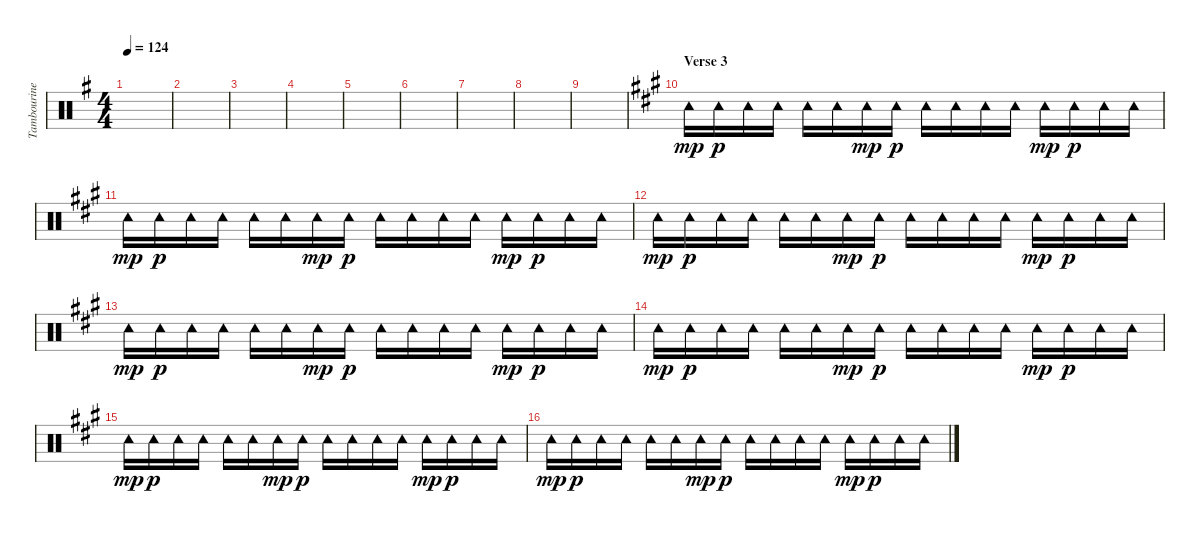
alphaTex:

\track ("Tambourine" "Tambourine") {instrument percussion}
\staff {score}
\articulation defaults
\ts (4 4)
\tempo 124
\clef neutral
\ks eminor
|
|
|
|
|
|
|
|
|
\section ("" "Verse 3")
\ks a "Tambourine (hit)".16{dy mp} "Tambourine (hit)".16{dy p} "Tambourine (hit)".16 "Tambourine (hit)".16 "Tambourine (hit)".16 "Tambourine (hit)".16 "Tambourine (hit)".16{dy mp} "Tambourine (hit)".16{dy p} "Tambourine (hit)".16 "Tambourine (hit)".16 "Tambourine (hit)".16 "Tambourine (hit)".16 "Tambourine (hit)".16{dy mp} "Tambourine (hit)".16{dy p} "Tambourine (hit)".16 "Tambourine (hit)".16
|
"Tambourine (hit)".16{dy mp} "Tambourine (hit)".16{dy p} "Tambourine (hit)".16 "Tambourine (hit)".16 "Tambourine (hit)".16 "Tambourine (hit)".16 "Tambourine (hit)".16{dy mp} "Tambourine (hit)".16{dy p} "Tambourine (hit)".16 "Tambourine (hit)".16 "Tambourine (hit)".16 "Tambourine (hit)".16 "Tambourine (hit)".16{dy mp} "Tambourine (hit)".16{dy p} "Tambourine (hit)".16 "Tambourine (hit)".16 |
"Tambourine (hit)".16{dy mp} "Tambourine (hit)".16{dy p} "Tambourine (hit)".16 "Tambourine (hit)".16 "Tambourine (hit)".16 "Tambourine (hit)".16 "Tambourine (hit)".16{dy mp} "Tambourine (hit)".16{dy p} "Tambourine (hit)".16 "Tambourine (hit)".16 "Tambourine (hit)".16 "Tambourine (hit)".16 "Tambourine (hit)".16{dy mp} "Tambourine (hit)".16{dy p} "Tambourine (hit)".16 "Tambourine (hit)".16 |
"Tambourine (hit)".16{dy mp} "Tambourine (hit)".16{dy p} "Tambourine (hit)".16 "Tambourine (hit)".16 "Tambourine (hit)".16 "Tambourine (hit)".16 "Tambourine (hit)".16{dy mp} "Tambourine (hit)".16{dy p} "Tambourine (hit)".16 "Tambourine (hit)".16 "Tambourine (hit)".16 "Tambourine (hit)".16 "Tambourine (hit)".16{dy mp} "Tambourine (hit)".16{dy p} "Tambourine (hit)".16 "Tambourine (hit)".16 |
"Tambourine (hit)".16{dy mp} "Tambourine (hit)".16{dy p} "Tambourine (hit)".16 "Tambourine (hit)".16 "Tambourine (hit)".16 "Tambourine (hit)".16 "Tambourine (hit)".16{dy mp} "Tambourine (hit)".16{dy p} "Tambourine (hit)".16 "Tambourine (hit)".16 "Tambourine (hit)".16 "Tambourine (hit)".16 "Tambourine (hit)".16{dy mp} "Tambourine (hit)".16{dy p} "Tambourine (hit)".16 "Tambourine (hit)".16 |
"Tambourine (hit)".16{dy mp} "Tambourine (hit)".16{dy p} "Tambourine (hit)".16 "Tambourine (hit)".16 "Tambourine (hit)".16 "Tambourine (hit)".16 "Tambourine (hit)".16{dy mp} "Tambourine (hit)".16{dy p} "Tambourine (hit)".16 "Tambourine (hit)".16 "Tambourine (hit)".16 "Tambourine (hit)".16 "Tambourine (hit)".16{dy mp} "Tambourine (hit)".16{dy p} "Tambourine (hit)".16 "Tambourine (hit)".16 |
"Tambourine (hit)".16{dy mp} "Tambourine (hit)".16{dy p} "Tambourine (hit)".16 "Tambourine (hit)".16 "Tambourine (hit)".16 "Tambourine (hit)".16 "Tambourine (hit)".16{dy mp} "Tambourine (hit)".16{dy p} "Tambourine (hit)".16 "Tambourine (hit)".16 "Tambourine (hit)".16 "Tambourine (hit)".16 "Tambourine (hit)".16{dy mp} "Tambourine (hit)".16{dy p} "Tambourine (hit)".16 "Tambourine (hit)".16
